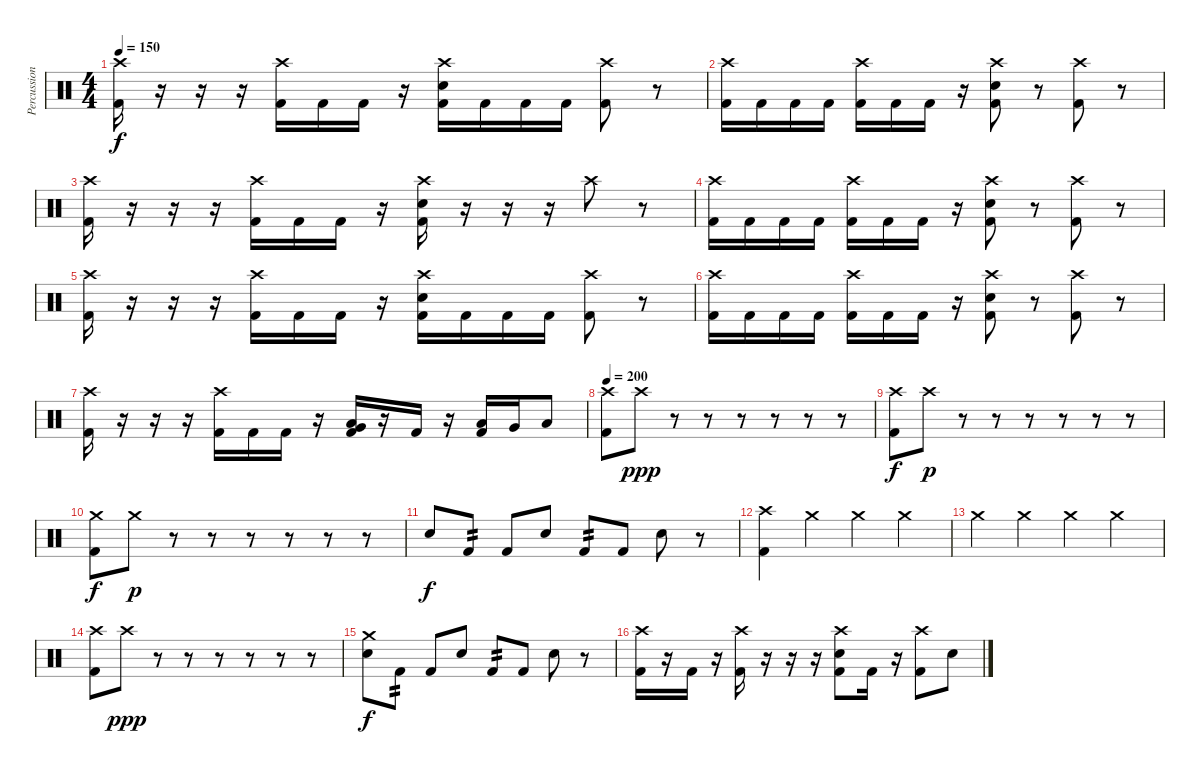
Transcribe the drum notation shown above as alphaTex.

\track ("Percussion" "Percussion") {instrument percussion}
\staff {score}
\articulation defaults
\ts (4 4)
\tempo 150
\clef neutral
\ks c
("Crash high (hit)" "Kick (hit) 2").16{dy f} r.16 r.16 r.16 ("Crash high (hit)" "Kick (hit) 2").16 "Kick (hit) 2".16 "Kick (hit) 2".16 r.16 ("Crash high (hit)" "Electric Snare (hit)" "Kick (hit) 2").16 "Kick (hit) 2".16 "Kick (hit) 2".16 "Kick (hit) 2".16 ("Crash high (hit)" "Kick (hit) 2").8 r.8 |
("Crash high (hit)" "Kick (hit) 2").16 "Kick (hit) 2".16 "Kick (hit) 2".16 "Kick (hit) 2".16 ("Crash high (hit)" "Kick (hit) 2").16 "Kick (hit) 2".16 "Kick (hit) 2".16 r.16 ("Crash high (hit)" "Electric Snare (hit)" "Kick (hit) 2").8 r.8 ("Crash high (hit)" "Kick (hit) 2").8 r.8 |
("Crash high (hit)" "Kick (hit) 2").16 r.16 r.16 r.16 ("Crash high (hit)" "Kick (hit) 2").16 "Kick (hit) 2".16 "Kick (hit) 2".16 r.16 ("Crash high (hit)" "Electric Snare (hit)" "Kick (hit) 2").16 r.16 r.16 r.16 "Crash high (hit)".8 r.8 |
("Crash high (hit)" "Kick (hit) 2").16 "Kick (hit) 2".16 "Kick (hit) 2".16 "Kick (hit) 2".16 ("Crash high (hit)" "Kick (hit) 2").16 "Kick (hit) 2".16 "Kick (hit) 2".16 r.16 ("Crash high (hit)" "Electric Snare (hit)" "Kick (hit) 2").8 r.8 ("Crash high (hit)" "Kick (hit) 2").8 r.8 |
("Crash high (hit)" "Kick (hit) 2").16 r.16 r.16 r.16 ("Crash high (hit)" "Kick (hit) 2").16 "Kick (hit) 2".16 "Kick (hit) 2".16 r.16 ("Crash high (hit)" "Electric Snare (hit)" "Kick (hit) 2").16 "Kick (hit) 2".16 "Kick (hit) 2".16 "Kick (hit) 2".16 ("Crash high (hit)" "Kick (hit) 2").8 r.8 |
("Crash high (hit)" "Kick (hit) 2").16 "Kick (hit) 2".16 "Kick (hit) 2".16 "Kick (hit) 2".16 ("Crash high (hit)" "Kick (hit) 2").16 "Kick (hit) 2".16 "Kick (hit) 2".16 r.16 ("Crash high (hit)" "Electric Snare (hit)" "Kick (hit) 2").8 r.8 ("Crash high (hit)" "Kick (hit) 2").8 r.8 |
("Crash high (hit)" "Kick (hit) 2").16 r.16 r.16 r.16 ("Crash high (hit)" "Kick (hit) 2").16 "Kick (hit) 2".16 "Kick (hit) 2".16 r.16 ("Low Tom (hit)" "Very Low Tom (hit)" "Kick (hit) 2").16 r.16 "Kick (hit) 2".16 r.16 ("Low Tom (hit)" "Kick (hit) 2").16 "Very Low Tom (hit)".16 "Low Floor Tom (hit)".8 |
\tempo 200
("Crash high (hit)" "Kick (hit) 2").8 "Crash high (hit)".8{dy ppp} r.8 r.8 r.8 r.8 r.8 r.8 |
("Crash high (hit)" "Kick (hit) 2").8{dy f} "Crash high (hit)".8{dy p} r.8 r.8 r.8 r.8 r.8 r.8 |
("Crash medium (hit)" "Kick (hit) 2").8{dy f} "Crash medium (hit)".8{dy p} r.8 r.8 r.8 r.8 r.8 r.8 |
"Electric Snare (hit)".8{dy f} "Kick (hit) 2".8{tp 2} "Kick (hit) 2".8 "Electric Snare (hit)".8 "Kick (hit) 2".8{tp 2} "Kick (hit) 2".8 "Electric Snare (hit)".8 r.8 |
("Crash high (hit)" "Kick (hit) 2").4 "Crash medium (hit)".4 "Crash medium (hit)".4 "Crash medium (hit)".4 |
"Crash medium (hit)".4 "Crash medium (hit)".4 "Crash medium (hit)".4 "Crash medium (hit)".4 |
("Crash high (hit)" "Kick (hit) 2").8 "Crash high (hit)".8{dy ppp} r.8 r.8 r.8 r.8 r.8 r.8 |
("Crash medium (hit)" "Electric Snare (hit)").8{dy f} "Kick (hit) 2".8{tp 2} "Kick (hit) 2".8 "Electric Snare (hit)".8 "Kick (hit) 2".8{tp 2} "Kick (hit) 2".8 "Electric Snare (hit)".8 r.8 |
("Crash high (hit)" "Kick (hit) 2").16 r.16 "Kick (hit) 2".16 r.16 ("Crash high (hit)" "Kick (hit) 2").16 r.16 r.16 r.16 ("Crash high (hit)" "Electric Snare (hit)" "Kick (hit) 2").8 "Kick (hit) 2".16 r.16 ("Crash high (hit)" "Kick (hit) 2").8 "Electric Snare (hit)".8
